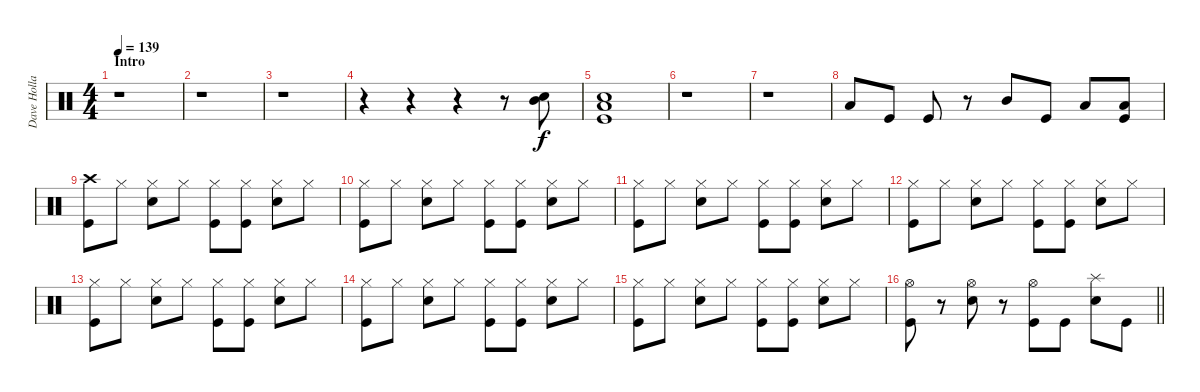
\track ("Dave Holland" "Dave Holla") {instrument percussion}
\staff {score}
\articulation defaults
\ts (4 4)
\section ("" "Intro")
\tempo 139
\clef neutral
\ks c
r.1{dy f} |
r.1 |
r.1 |
r.4 r.4 r.4 r.8 ("Mid Tom (hit)" "Electric Snare (hit)").8 |
("Low Tom (hit)" "Electric Snare (hit)" "Kick (hit)").1 |
r.1 |
r.1 |
"Low Tom (hit)".8 "Kick (hit)".8 "Kick (hit)".8 r.8 "Mid Tom (hit)".8 "Kick (hit)".8 "Low Tom (hit)".8 ("Low Tom (hit)" "Kick (hit)").8 |
("Crash high (hit)" "Kick (hit)").8 "Hi-Hat (closed)".8 ("Hi-Hat (closed)" "Electric Snare (hit)").8 "Hi-Hat (closed)".8 ("Hi-Hat (closed)" "Kick (hit)").8 ("Hi-Hat (closed)" "Kick (hit)").8 ("Hi-Hat (closed)" "Electric Snare (hit)").8 "Hi-Hat (closed)".8 |
("Hi-Hat (closed)" "Kick (hit)").8 "Hi-Hat (closed)".8 ("Hi-Hat (closed)" "Electric Snare (hit)").8 "Hi-Hat (closed)".8 ("Hi-Hat (closed)" "Kick (hit)").8 ("Hi-Hat (closed)" "Kick (hit)").8 ("Hi-Hat (closed)" "Electric Snare (hit)").8 "Hi-Hat (closed)".8 |
("Hi-Hat (closed)" "Kick (hit)").8 "Hi-Hat (closed)".8 ("Hi-Hat (closed)" "Electric Snare (hit)").8 "Hi-Hat (closed)".8 ("Hi-Hat (closed)" "Kick (hit)").8 ("Hi-Hat (closed)" "Kick (hit)").8 ("Hi-Hat (closed)" "Electric Snare (hit)").8 "Hi-Hat (closed)".8 |
("Hi-Hat (closed)" "Kick (hit)").8 "Hi-Hat (closed)".8 ("Hi-Hat (closed)" "Electric Snare (hit)").8 "Hi-Hat (closed)".8 ("Hi-Hat (closed)" "Kick (hit)").8 ("Hi-Hat (closed)" "Kick (hit)").8 ("Hi-Hat (closed)" "Electric Snare (hit)").8 "Hi-Hat (closed)".8 |
("Hi-Hat (closed)" "Kick (hit)").8 "Hi-Hat (closed)".8 ("Hi-Hat (closed)" "Electric Snare (hit)").8 "Hi-Hat (closed)".8 ("Hi-Hat (closed)" "Kick (hit)").8 ("Hi-Hat (closed)" "Kick (hit)").8 ("Hi-Hat (closed)" "Electric Snare (hit)").8 "Hi-Hat (closed)".8 |
("Hi-Hat (closed)" "Kick (hit)").8 "Hi-Hat (closed)".8 ("Hi-Hat (closed)" "Electric Snare (hit)").8 "Hi-Hat (closed)".8 ("Hi-Hat (closed)" "Kick (hit)").8 ("Hi-Hat (closed)" "Kick (hit)").8 ("Hi-Hat (closed)" "Electric Snare (hit)").8 "Hi-Hat (closed)".8 |
("Hi-Hat (closed)" "Kick (hit)").8 "Hi-Hat (closed)".8 ("Hi-Hat (closed)" "Electric Snare (hit)").8 "Hi-Hat (closed)".8 ("Hi-Hat (closed)" "Kick (hit)").8 ("Hi-Hat (closed)" "Kick (hit)").8 ("Hi-Hat (closed)" "Electric Snare (hit)").8 "Hi-Hat (closed)".8 |
\barLineRight lightlight
("Hi-Hat (open)" "Kick (hit)").8 r.8 ("Hi-Hat (open)" "Electric Snare (hit)").8 r.8 ("Hi-Hat (open)" "Kick (hit)").8 "Kick (hit)".8 ("Splash (hit)" "Electric Snare (hit)").8 "Kick (hit)".8
